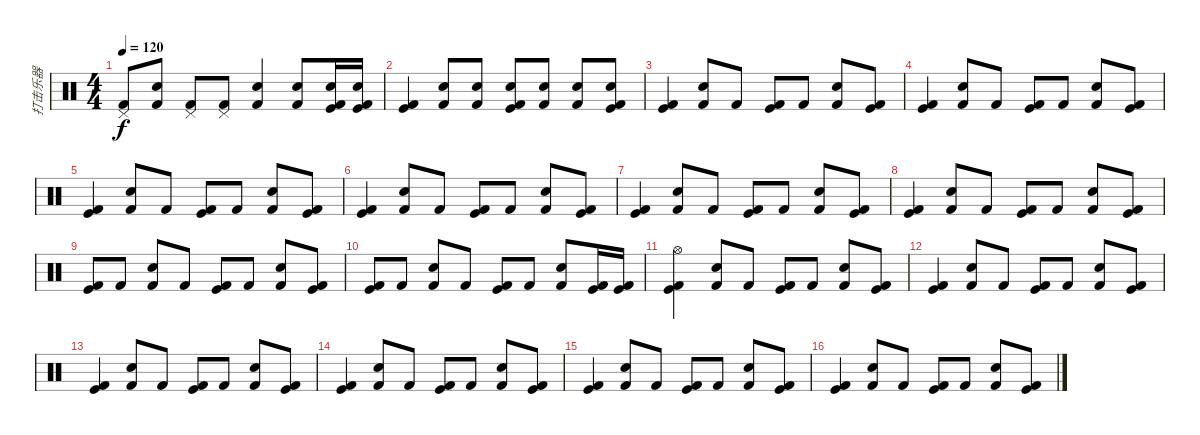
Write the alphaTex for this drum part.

\track ("打击乐器" "打击乐器") {instrument percussion}
\staff {score}
\articulation defaults
\ts (4 4)
\tempo 120
\clef neutral
\ks c
("Pedal Hi-Hat (hit)" "Kick (hit) 2").8{dy f} ("Kick (hit) 2" "Electric Snare (hit)").8 ("Kick (hit) 2" "Pedal Hi-Hat (hit)").8 ("Kick (hit) 2" "Pedal Hi-Hat (hit)").8 ("Kick (hit) 2" "Electric Snare (hit)").4 ("Kick (hit) 2" "Electric Snare (hit)").8 ("Kick (hit) 2" "Kick (hit)" "Electric Snare (hit)").16 ("Kick (hit) 2" "Kick (hit)" "Electric Snare (hit)").16 |
("Kick (hit) 2" "Kick (hit)").4 ("Kick (hit) 2" "Electric Snare (hit)").8 ("Kick (hit) 2" "Electric Snare (hit)").8 ("Kick (hit) 2" "Kick (hit)" "Electric Snare (hit)").8 ("Kick (hit) 2" "Electric Snare (hit)").8 ("Kick (hit) 2" "Electric Snare (hit)").8 ("Kick (hit) 2" "Kick (hit)" "Electric Snare (hit)").8 |
("Kick (hit) 2" "Kick (hit)").4 ("Kick (hit) 2" "Electric Snare (hit)").8 "Kick (hit) 2".8 ("Kick (hit) 2" "Kick (hit)").8 "Kick (hit) 2".8 ("Kick (hit) 2" "Electric Snare (hit)").8 ("Kick (hit) 2" "Kick (hit)").8 |
("Kick (hit) 2" "Kick (hit)").4 ("Kick (hit) 2" "Electric Snare (hit)").8 "Kick (hit) 2".8 ("Kick (hit) 2" "Kick (hit)").8 "Kick (hit) 2".8 ("Kick (hit) 2" "Electric Snare (hit)").8 ("Kick (hit) 2" "Kick (hit)").8 |
("Kick (hit) 2" "Kick (hit)").4 ("Kick (hit) 2" "Electric Snare (hit)").8 "Kick (hit) 2".8 ("Kick (hit) 2" "Kick (hit)").8 "Kick (hit) 2".8 ("Kick (hit) 2" "Electric Snare (hit)").8 ("Kick (hit) 2" "Kick (hit)").8 |
("Kick (hit) 2" "Kick (hit)").4 ("Kick (hit) 2" "Electric Snare (hit)").8 "Kick (hit) 2".8 ("Kick (hit) 2" "Kick (hit)").8 "Kick (hit) 2".8 ("Kick (hit) 2" "Electric Snare (hit)").8 ("Kick (hit) 2" "Kick (hit)").8 |
("Kick (hit) 2" "Kick (hit)").4 ("Kick (hit) 2" "Electric Snare (hit)").8 "Kick (hit) 2".8 ("Kick (hit) 2" "Kick (hit)").8 "Kick (hit) 2".8 ("Kick (hit) 2" "Electric Snare (hit)").8 ("Kick (hit) 2" "Kick (hit)").8 |
("Kick (hit) 2" "Kick (hit)").4 ("Kick (hit) 2" "Electric Snare (hit)").8 "Kick (hit) 2".8 ("Kick (hit) 2" "Kick (hit)").8 "Kick (hit) 2".8 ("Kick (hit) 2" "Electric Snare (hit)").8 ("Kick (hit) 2" "Kick (hit)").8 |
("Kick (hit) 2" "Kick (hit)").8 "Kick (hit) 2".8 ("Kick (hit) 2" "Electric Snare (hit)").8 "Kick (hit) 2".8 ("Kick (hit) 2" "Kick (hit)").8 "Kick (hit) 2".8 ("Kick (hit) 2" "Electric Snare (hit)").8 ("Kick (hit) 2" "Kick (hit)").8 |
("Kick (hit) 2" "Kick (hit)").8 "Kick (hit) 2".8 ("Kick (hit) 2" "Electric Snare (hit)").8 "Kick (hit) 2".8 ("Kick (hit) 2" "Kick (hit)").8 "Kick (hit) 2".8 ("Kick (hit) 2" "Electric Snare (hit)").8 ("Kick (hit) 2" "Kick (hit)").16 ("Kick (hit) 2" "Kick (hit)").16 |
("Kick (hit) 2" "Kick (hit)" "Hi-Hat (open)").4 ("Kick (hit) 2" "Electric Snare (hit)").8 "Kick (hit) 2".8 ("Kick (hit) 2" "Kick (hit)").8 "Kick (hit) 2".8 ("Kick (hit) 2" "Electric Snare (hit)").8 ("Kick (hit) 2" "Kick (hit)").8 |
("Kick (hit) 2" "Kick (hit)").4 ("Kick (hit) 2" "Electric Snare (hit)").8 "Kick (hit) 2".8 ("Kick (hit) 2" "Kick (hit)").8 "Kick (hit) 2".8 ("Kick (hit) 2" "Electric Snare (hit)").8 ("Kick (hit) 2" "Kick (hit)").8 |
("Kick (hit) 2" "Kick (hit)").4 ("Kick (hit) 2" "Electric Snare (hit)").8 "Kick (hit) 2".8 ("Kick (hit) 2" "Kick (hit)").8 "Kick (hit) 2".8 ("Kick (hit) 2" "Electric Snare (hit)").8 ("Kick (hit) 2" "Kick (hit)").8 |
("Kick (hit) 2" "Kick (hit)").4 ("Kick (hit) 2" "Electric Snare (hit)").8 "Kick (hit) 2".8 ("Kick (hit) 2" "Kick (hit)").8 "Kick (hit) 2".8 ("Kick (hit) 2" "Electric Snare (hit)").8 ("Kick (hit) 2" "Kick (hit)").8 |
("Kick (hit) 2" "Kick (hit)").4 ("Kick (hit) 2" "Electric Snare (hit)").8 "Kick (hit) 2".8 ("Kick (hit) 2" "Kick (hit)").8 "Kick (hit) 2".8 ("Kick (hit) 2" "Electric Snare (hit)").8 ("Kick (hit) 2" "Kick (hit)").8 |
("Kick (hit) 2" "Kick (hit)").4 ("Kick (hit) 2" "Electric Snare (hit)").8 "Kick (hit) 2".8 ("Kick (hit) 2" "Kick (hit)").8 "Kick (hit) 2".8 ("Kick (hit) 2" "Electric Snare (hit)").8 ("Kick (hit) 2" "Kick (hit)").8
